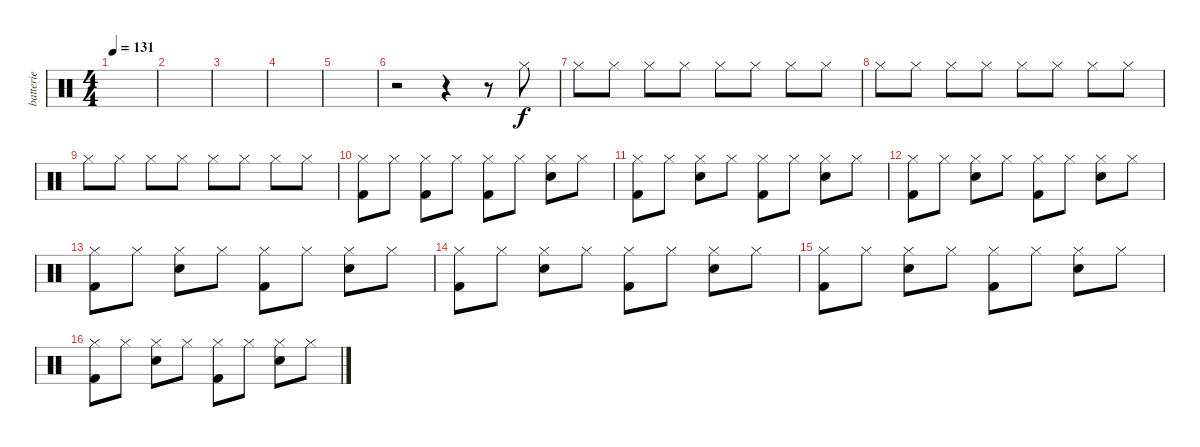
\track ("batterie" "batterie") {instrument percussion}
\staff {score}
\articulation defaults
\ts (4 4)
\tempo 131
\clef neutral
\ks c
|
|
|
|
|
r.2 r.4 r.8 "Hi-Hat (closed)".8 |
"Hi-Hat (closed)".8 "Hi-Hat (closed)".8 "Hi-Hat (closed)".8 "Hi-Hat (closed)".8 "Hi-Hat (closed)".8 "Hi-Hat (closed)".8 "Hi-Hat (closed)".8 "Hi-Hat (closed)".8 |
"Hi-Hat (closed)".8 "Hi-Hat (closed)".8 "Hi-Hat (closed)".8 "Hi-Hat (closed)".8 "Hi-Hat (closed)".8 "Hi-Hat (closed)".8 "Hi-Hat (closed)".8 "Hi-Hat (closed)".8 |
"Hi-Hat (closed)".8 "Hi-Hat (closed)".8 "Hi-Hat (closed)".8 "Hi-Hat (closed)".8 "Hi-Hat (closed)".8 "Hi-Hat (closed)".8 "Hi-Hat (closed)".8 "Hi-Hat (closed)".8 |
("Hi-Hat (closed)" "Kick (hit) 2").8 "Hi-Hat (closed)".8 ("Hi-Hat (closed)" "Kick (hit) 2").8 "Hi-Hat (closed)".8 ("Hi-Hat (closed)" "Kick (hit) 2").8 "Hi-Hat (closed)".8 ("Hi-Hat (closed)" "Electric Snare (hit)").8 "Hi-Hat (closed)".8 |
("Hi-Hat (closed)" "Kick (hit) 2").8 "Hi-Hat (closed)".8 ("Hi-Hat (closed)" "Electric Snare (hit)").8 "Hi-Hat (closed)".8 ("Hi-Hat (closed)" "Kick (hit) 2").8 "Hi-Hat (closed)".8 ("Hi-Hat (closed)" "Electric Snare (hit)").8 "Hi-Hat (closed)".8 |
("Hi-Hat (closed)" "Kick (hit) 2").8 "Hi-Hat (closed)".8 ("Hi-Hat (closed)" "Electric Snare (hit)").8 "Hi-Hat (closed)".8 ("Hi-Hat (closed)" "Kick (hit) 2").8 "Hi-Hat (closed)".8 ("Hi-Hat (closed)" "Electric Snare (hit)").8 "Hi-Hat (closed)".8 |
("Hi-Hat (closed)" "Kick (hit) 2").8 "Hi-Hat (closed)".8 ("Hi-Hat (closed)" "Electric Snare (hit)").8 "Hi-Hat (closed)".8 ("Hi-Hat (closed)" "Kick (hit) 2").8 "Hi-Hat (closed)".8 ("Hi-Hat (closed)" "Electric Snare (hit)").8 "Hi-Hat (closed)".8 |
("Hi-Hat (closed)" "Kick (hit) 2").8 "Hi-Hat (closed)".8 ("Hi-Hat (closed)" "Electric Snare (hit)").8 "Hi-Hat (closed)".8 ("Hi-Hat (closed)" "Kick (hit) 2").8 "Hi-Hat (closed)".8 ("Hi-Hat (closed)" "Electric Snare (hit)").8 "Hi-Hat (closed)".8 |
("Hi-Hat (closed)" "Kick (hit) 2").8 "Hi-Hat (closed)".8 ("Hi-Hat (closed)" "Electric Snare (hit)").8 "Hi-Hat (closed)".8 ("Hi-Hat (closed)" "Kick (hit) 2").8 "Hi-Hat (closed)".8 ("Hi-Hat (closed)" "Electric Snare (hit)").8 "Hi-Hat (closed)".8 |
("Hi-Hat (closed)" "Kick (hit) 2").8 "Hi-Hat (closed)".8 ("Hi-Hat (closed)" "Electric Snare (hit)").8 "Hi-Hat (closed)".8 ("Hi-Hat (closed)" "Kick (hit) 2").8 "Hi-Hat (closed)".8 ("Hi-Hat (closed)" "Electric Snare (hit)").8 "Hi-Hat (closed)".8
